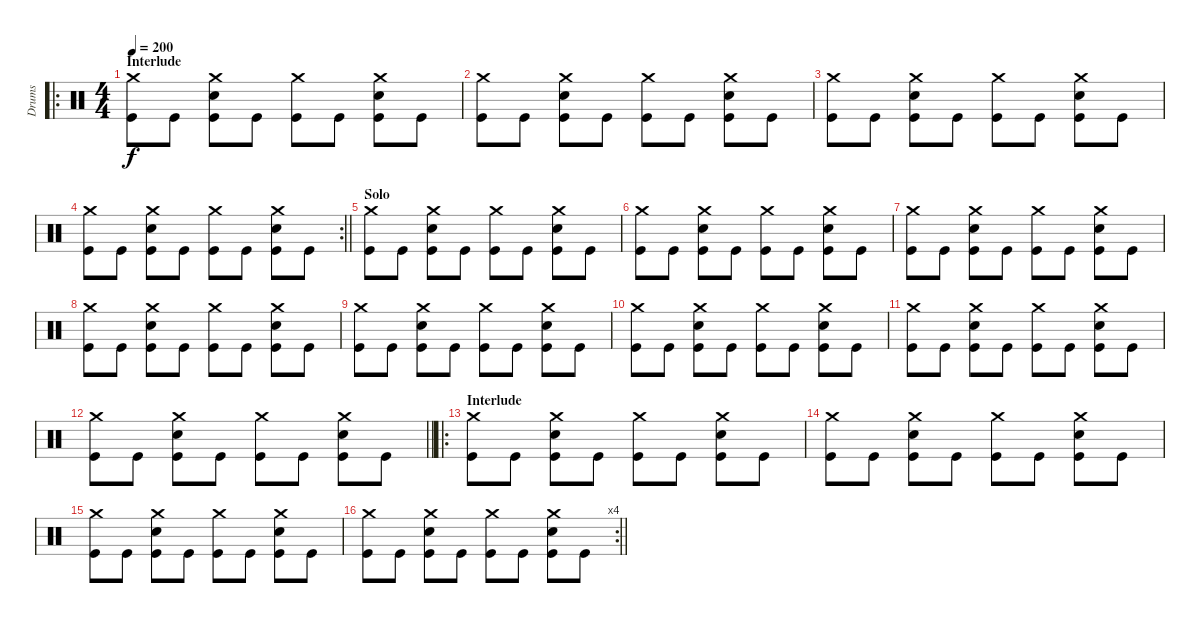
\track ("Drums" "Drums") {instrument percussion}
\staff {score}
\articulation defaults
\ro
\ts (4 4)
\section ("" "Interlude")
\tempo 200
\clef neutral
\ks c
("Crash medium (hit)" "Kick (hit)").8{dy f} "Kick (hit)".8 ("Crash medium (hit)" "Snare (hit) 2" "Kick (hit)").8 "Kick (hit)".8 ("Crash medium (hit)" "Kick (hit)").8 "Kick (hit)".8 ("Crash medium (hit)" "Snare (hit) 2" "Kick (hit)").8 "Kick (hit)".8 |
("Crash medium (hit)" "Kick (hit)").8 "Kick (hit)".8 ("Crash medium (hit)" "Snare (hit) 2" "Kick (hit)").8 "Kick (hit)".8 ("Crash medium (hit)" "Kick (hit)").8 "Kick (hit)".8 ("Crash medium (hit)" "Snare (hit) 2" "Kick (hit)").8 "Kick (hit)".8 |
("Crash medium (hit)" "Kick (hit)").8 "Kick (hit)".8 ("Crash medium (hit)" "Snare (hit) 2" "Kick (hit)").8 "Kick (hit)".8 ("Crash medium (hit)" "Kick (hit)").8 "Kick (hit)".8 ("Crash medium (hit)" "Snare (hit) 2" "Kick (hit)").8 "Kick (hit)".8 |
\rc 2
\barLineRight lightlight
("Crash medium (hit)" "Kick (hit)").8 "Kick (hit)".8 ("Crash medium (hit)" "Snare (hit) 2" "Kick (hit)").8 "Kick (hit)".8 ("Crash medium (hit)" "Kick (hit)").8 "Kick (hit)".8 ("Crash medium (hit)" "Snare (hit) 2" "Kick (hit)").8 "Kick (hit)".8 |
\section ("" "Solo")
("Crash medium (hit)" "Kick (hit)").8 "Kick (hit)".8 ("Crash medium (hit)" "Snare (hit) 2" "Kick (hit)").8 "Kick (hit)".8 ("Crash medium (hit)" "Kick (hit)").8 "Kick (hit)".8 ("Crash medium (hit)" "Snare (hit) 2" "Kick (hit)").8 "Kick (hit)".8 |
("Crash medium (hit)" "Kick (hit)").8 "Kick (hit)".8 ("Crash medium (hit)" "Snare (hit) 2" "Kick (hit)").8 "Kick (hit)".8 ("Crash medium (hit)" "Kick (hit)").8 "Kick (hit)".8 ("Crash medium (hit)" "Snare (hit) 2" "Kick (hit)").8 "Kick (hit)".8 |
("Crash medium (hit)" "Kick (hit)").8 "Kick (hit)".8 ("Crash medium (hit)" "Snare (hit) 2" "Kick (hit)").8 "Kick (hit)".8 ("Crash medium (hit)" "Kick (hit)").8 "Kick (hit)".8 ("Crash medium (hit)" "Snare (hit) 2" "Kick (hit)").8 "Kick (hit)".8 |
("Crash medium (hit)" "Kick (hit)").8 "Kick (hit)".8 ("Crash medium (hit)" "Snare (hit) 2" "Kick (hit)").8 "Kick (hit)".8 ("Crash medium (hit)" "Kick (hit)").8 "Kick (hit)".8 ("Crash medium (hit)" "Snare (hit) 2" "Kick (hit)").8 "Kick (hit)".8 |
("Crash medium (hit)" "Kick (hit)").8 "Kick (hit)".8 ("Crash medium (hit)" "Snare (hit) 2" "Kick (hit)").8 "Kick (hit)".8 ("Crash medium (hit)" "Kick (hit)").8 "Kick (hit)".8 ("Crash medium (hit)" "Snare (hit) 2" "Kick (hit)").8 "Kick (hit)".8 |
("Crash medium (hit)" "Kick (hit)").8 "Kick (hit)".8 ("Crash medium (hit)" "Snare (hit) 2" "Kick (hit)").8 "Kick (hit)".8 ("Crash medium (hit)" "Kick (hit)").8 "Kick (hit)".8 ("Crash medium (hit)" "Snare (hit) 2" "Kick (hit)").8 "Kick (hit)".8 |
("Crash medium (hit)" "Kick (hit)").8 "Kick (hit)".8 ("Crash medium (hit)" "Snare (hit) 2" "Kick (hit)").8 "Kick (hit)".8 ("Crash medium (hit)" "Kick (hit)").8 "Kick (hit)".8 ("Crash medium (hit)" "Snare (hit) 2" "Kick (hit)").8 "Kick (hit)".8 |
\barLineRight lightlight
("Crash medium (hit)" "Kick (hit)").8 "Kick (hit)".8 ("Crash medium (hit)" "Snare (hit) 2" "Kick (hit)").8 "Kick (hit)".8 ("Crash medium (hit)" "Kick (hit)").8 "Kick (hit)".8 ("Crash medium (hit)" "Snare (hit) 2" "Kick (hit)").8 "Kick (hit)".8 |
\ro
\section ("" "Interlude")
("Crash medium (hit)" "Kick (hit)").8 "Kick (hit)".8 ("Crash medium (hit)" "Snare (hit) 2" "Kick (hit)").8 "Kick (hit)".8 ("Crash medium (hit)" "Kick (hit)").8 "Kick (hit)".8 ("Crash medium (hit)" "Snare (hit) 2" "Kick (hit)").8 "Kick (hit)".8 |
("Crash medium (hit)" "Kick (hit)").8 "Kick (hit)".8 ("Crash medium (hit)" "Snare (hit) 2" "Kick (hit)").8 "Kick (hit)".8 ("Crash medium (hit)" "Kick (hit)").8 "Kick (hit)".8 ("Crash medium (hit)" "Snare (hit) 2" "Kick (hit)").8 "Kick (hit)".8 |
("Crash medium (hit)" "Kick (hit)").8 "Kick (hit)".8 ("Crash medium (hit)" "Snare (hit) 2" "Kick (hit)").8 "Kick (hit)".8 ("Crash medium (hit)" "Kick (hit)").8 "Kick (hit)".8 ("Crash medium (hit)" "Snare (hit) 2" "Kick (hit)").8 "Kick (hit)".8 |
\rc 4
\barLineRight lightlight
("Crash medium (hit)" "Kick (hit)").8 "Kick (hit)".8 ("Crash medium (hit)" "Snare (hit) 2" "Kick (hit)").8 "Kick (hit)".8 ("Crash medium (hit)" "Kick (hit)").8 "Kick (hit)".8 ("Crash medium (hit)" "Snare (hit) 2" "Kick (hit)").8 "Kick (hit)".8
